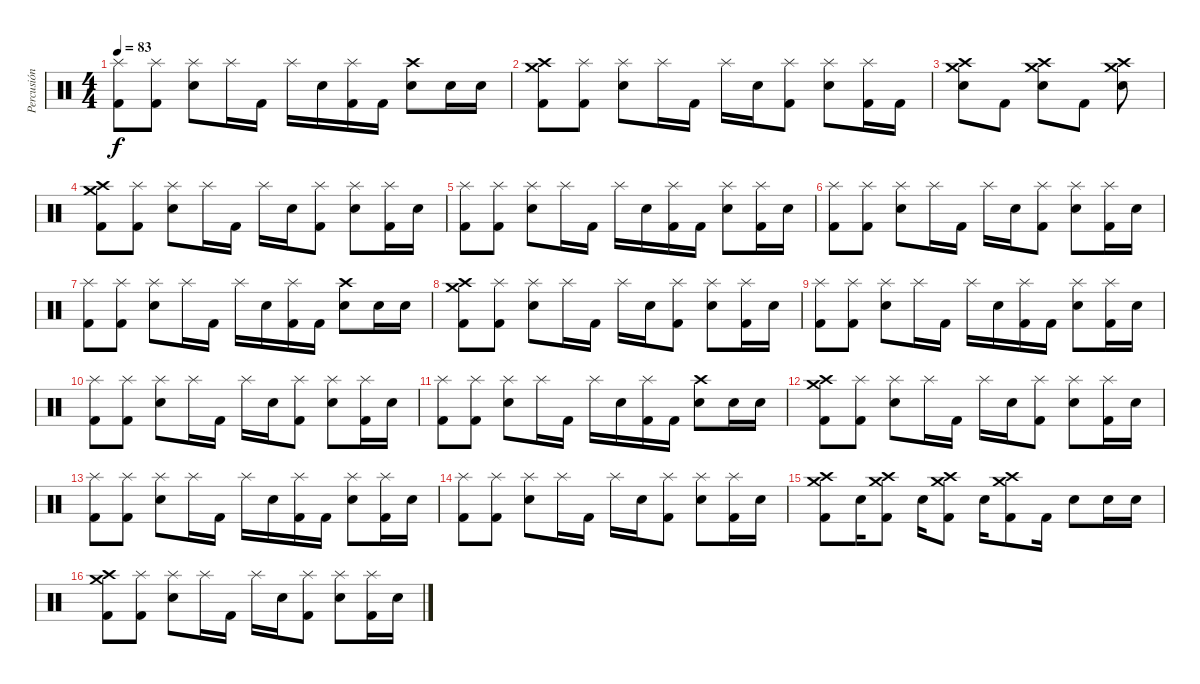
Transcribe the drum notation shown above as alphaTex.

\track ("Percusión" "Percusión") {instrument percussion}
\staff {score}
\articulation defaults
\ts (4 4)
\tempo 83
\clef neutral
\ks c
("Splash (hit)" "Kick (hit) 2").8{dy f} ("Splash (hit)" "Kick (hit) 2").8 ("Splash (hit)" "Electric Snare (hit)").8 "Splash (hit)".16 "Kick (hit) 2".16 "Splash (hit)".16 "Electric Snare (hit)".16 ("Splash (hit)" "Kick (hit) 2").16 "Kick (hit) 2".16 ("Crash high (hit)" "Electric Snare (hit)").8 "Electric Snare (hit)".16 "Electric Snare (hit)".16 |
("Crash medium (hit)" "Crash high (hit)" "Kick (hit) 2").8 ("Splash (hit)" "Kick (hit) 2").8 ("Splash (hit)" "Electric Snare (hit)").8 "Splash (hit)".16 "Kick (hit) 2".16 "Splash (hit)".16 "Electric Snare (hit)".16 ("Splash (hit)" "Kick (hit) 2").8 ("Splash (hit)" "Electric Snare (hit)").8 ("Splash (hit)" "Kick (hit) 2").16 "Kick (hit) 2".16 |
("Crash medium (hit)" "Crash high (hit)" "Electric Snare (hit)").8 "Kick (hit) 2".8 ("Crash medium (hit)" "Crash high (hit)" "Electric Snare (hit)").8 "Kick (hit) 2".8 ("Crash medium (hit)" "Crash high (hit)" "Electric Snare (hit)").8 |
("Crash medium (hit)" "Crash high (hit)" "Kick (hit) 2").8 ("Splash (hit)" "Kick (hit) 2").8 ("Splash (hit)" "Electric Snare (hit)").8 "Splash (hit)".16 "Kick (hit) 2".16 "Splash (hit)".16 "Electric Snare (hit)".16 ("Splash (hit)" "Kick (hit) 2").8 ("Splash (hit)" "Electric Snare (hit)").8 ("Splash (hit)" "Kick (hit) 2").16 "Electric Snare (hit)".16 |
("Splash (hit)" "Kick (hit) 2").8 ("Splash (hit)" "Kick (hit) 2").8 ("Splash (hit)" "Electric Snare (hit)").8 "Splash (hit)".16 "Kick (hit) 2".16 "Splash (hit)".16 "Electric Snare (hit)".16 ("Splash (hit)" "Kick (hit) 2").16 "Kick (hit) 2".16 ("Splash (hit)" "Electric Snare (hit)").8 ("Splash (hit)" "Kick (hit) 2").16 "Electric Snare (hit)".16 |
("Splash (hit)" "Kick (hit) 2").8 ("Splash (hit)" "Kick (hit) 2").8 ("Splash (hit)" "Electric Snare (hit)").8 "Splash (hit)".16 "Kick (hit) 2".16 "Splash (hit)".16 "Electric Snare (hit)".16 ("Splash (hit)" "Kick (hit) 2").8 ("Splash (hit)" "Electric Snare (hit)").8 ("Splash (hit)" "Kick (hit) 2").16 "Electric Snare (hit)".16 |
("Splash (hit)" "Kick (hit) 2").8 ("Splash (hit)" "Kick (hit) 2").8 ("Splash (hit)" "Electric Snare (hit)").8 "Splash (hit)".16 "Kick (hit) 2".16 "Splash (hit)".16 "Electric Snare (hit)".16 ("Splash (hit)" "Kick (hit) 2").16 "Kick (hit) 2".16 ("Crash high (hit)" "Electric Snare (hit)").8 "Electric Snare (hit)".16 "Electric Snare (hit)".16 |
("Crash medium (hit)" "Crash high (hit)" "Kick (hit) 2").8 ("Splash (hit)" "Kick (hit) 2").8 ("Splash (hit)" "Electric Snare (hit)").8 "Splash (hit)".16 "Kick (hit) 2".16 "Splash (hit)".16 "Electric Snare (hit)".16 ("Splash (hit)" "Kick (hit) 2").8 ("Splash (hit)" "Electric Snare (hit)").8 ("Splash (hit)" "Kick (hit) 2").16 "Electric Snare (hit)".16 |
("Splash (hit)" "Kick (hit) 2").8 ("Splash (hit)" "Kick (hit) 2").8 ("Splash (hit)" "Electric Snare (hit)").8 "Splash (hit)".16 "Kick (hit) 2".16 "Splash (hit)".16 "Electric Snare (hit)".16 ("Splash (hit)" "Kick (hit) 2").16 "Kick (hit) 2".16 ("Splash (hit)" "Electric Snare (hit)").8 ("Splash (hit)" "Kick (hit) 2").16 "Electric Snare (hit)".16 |
("Splash (hit)" "Kick (hit) 2").8 ("Splash (hit)" "Kick (hit) 2").8 ("Splash (hit)" "Electric Snare (hit)").8 "Splash (hit)".16 "Kick (hit) 2".16 "Splash (hit)".16 "Electric Snare (hit)".16 ("Splash (hit)" "Kick (hit) 2").8 ("Splash (hit)" "Electric Snare (hit)").8 ("Splash (hit)" "Kick (hit) 2").16 "Electric Snare (hit)".16 |
("Splash (hit)" "Kick (hit) 2").8 ("Splash (hit)" "Kick (hit) 2").8 ("Splash (hit)" "Electric Snare (hit)").8 "Splash (hit)".16 "Kick (hit) 2".16 "Splash (hit)".16 "Electric Snare (hit)".16 ("Splash (hit)" "Kick (hit) 2").16 "Kick (hit) 2".16 ("Crash high (hit)" "Electric Snare (hit)").8 "Electric Snare (hit)".16 "Electric Snare (hit)".16 |
("Crash medium (hit)" "Crash high (hit)" "Kick (hit) 2").8 ("Splash (hit)" "Kick (hit) 2").8 ("Splash (hit)" "Electric Snare (hit)").8 "Splash (hit)".16 "Kick (hit) 2".16 "Splash (hit)".16 "Electric Snare (hit)".16 ("Splash (hit)" "Kick (hit) 2").8 ("Splash (hit)" "Electric Snare (hit)").8 ("Splash (hit)" "Kick (hit) 2").16 "Electric Snare (hit)".16 |
("Splash (hit)" "Kick (hit) 2").8 ("Splash (hit)" "Kick (hit) 2").8 ("Splash (hit)" "Electric Snare (hit)").8 "Splash (hit)".16 "Kick (hit) 2".16 "Splash (hit)".16 "Electric Snare (hit)".16 ("Splash (hit)" "Kick (hit) 2").16 "Kick (hit) 2".16 ("Splash (hit)" "Electric Snare (hit)").8 ("Splash (hit)" "Kick (hit) 2").16 "Electric Snare (hit)".16 |
("Splash (hit)" "Kick (hit) 2").8 ("Splash (hit)" "Kick (hit) 2").8 ("Splash (hit)" "Electric Snare (hit)").8 "Splash (hit)".16 "Kick (hit) 2".16 "Splash (hit)".16 "Electric Snare (hit)".16 ("Splash (hit)" "Kick (hit) 2").8 ("Splash (hit)" "Electric Snare (hit)").8 ("Splash (hit)" "Kick (hit) 2").16 "Electric Snare (hit)".16 |
("Crash medium (hit)" "Crash high (hit)" "Kick (hit) 2").8 "Electric Snare (hit)".16 ("Crash medium (hit)" "Crash high (hit)" "Kick (hit) 2").8 "Electric Snare (hit)".16 ("Crash medium (hit)" "Crash high (hit)" "Kick (hit) 2").8 "Electric Snare (hit)".16 ("Crash medium (hit)" "Crash high (hit)" "Kick (hit) 2").8 "Kick (hit) 2".16 "Electric Snare (hit)".8 "Electric Snare (hit)".16 "Electric Snare (hit)".16 |
("Crash medium (hit)" "Crash high (hit)" "Kick (hit) 2").8 ("Splash (hit)" "Kick (hit) 2").8 ("Splash (hit)" "Electric Snare (hit)").8 "Splash (hit)".16 "Kick (hit) 2".16 "Splash (hit)".16 "Electric Snare (hit)".16 ("Splash (hit)" "Kick (hit) 2").8 ("Splash (hit)" "Electric Snare (hit)").8 ("Splash (hit)" "Kick (hit) 2").16 "Electric Snare (hit)".16
